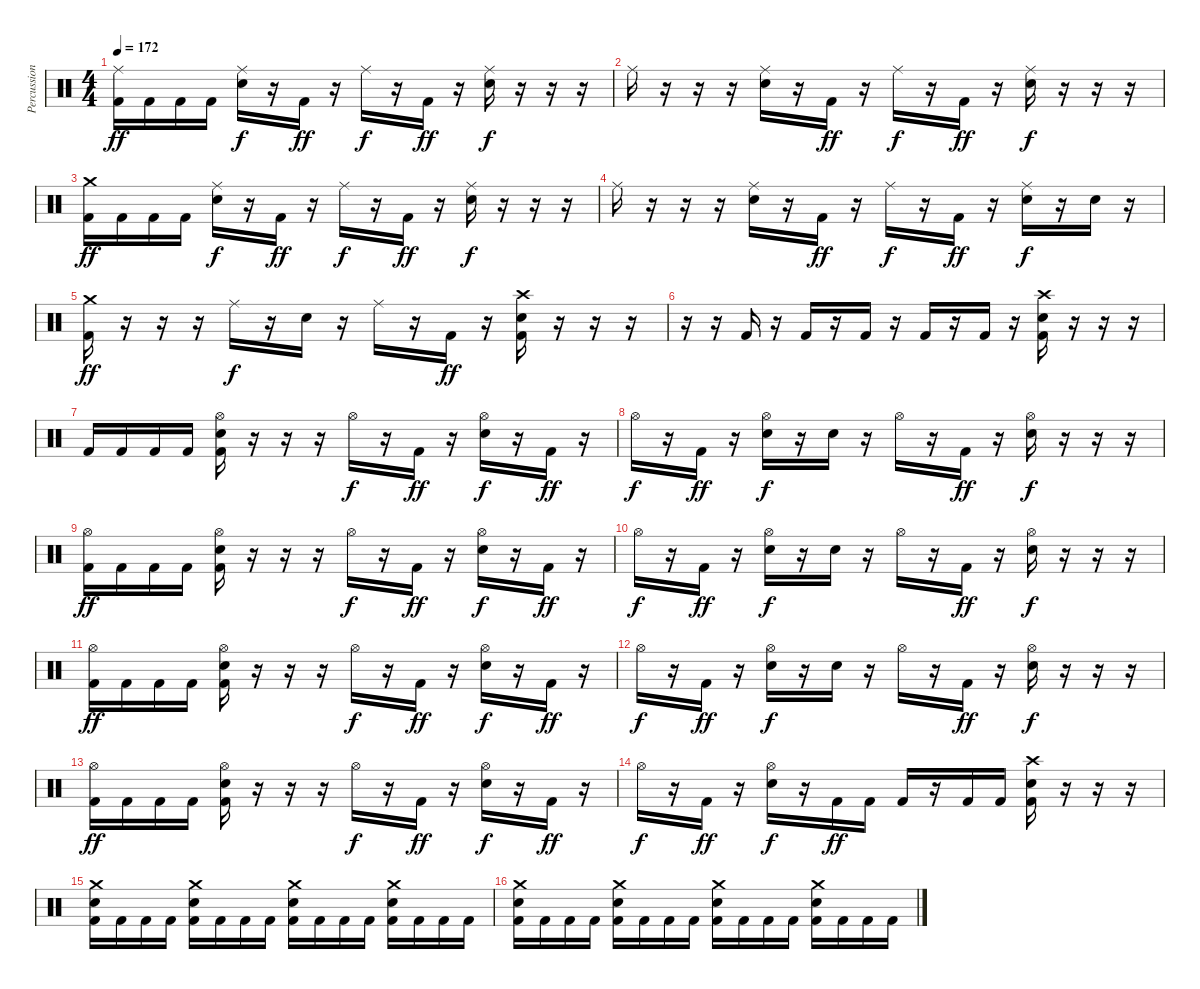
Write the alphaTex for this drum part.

\track ("Percussion" "Percussion") {instrument percussion}
\staff {score}
\articulation defaults
\ts (4 4)
\tempo 172
\clef neutral
\ks c
("Ride (middle)" "Kick (hit) 2").16{dy ff} "Kick (hit) 2".16 "Kick (hit) 2".16 "Kick (hit) 2".16 ("Ride (middle)" "Electric Snare (hit)").16{dy f} r.16 "Kick (hit) 2".16{dy ff} r.16 "Ride (middle)".16{dy f} r.16 "Kick (hit) 2".16{dy ff} r.16 ("Ride (middle)" "Electric Snare (hit)").16{dy f} r.16 r.16 r.16 |
"Ride (middle)".16 r.16 r.16 r.16 ("Ride (middle)" "Electric Snare (hit)").16 r.16 "Kick (hit) 2".16{dy ff} r.16 "Ride (middle)".16{dy f} r.16 "Kick (hit) 2".16{dy ff} r.16 ("Ride (middle)" "Electric Snare (hit)").16{dy f} r.16 r.16 r.16 |
("Crash medium (hit)" "Kick (hit) 2").16{dy ff} "Kick (hit) 2".16 "Kick (hit) 2".16 "Kick (hit) 2".16 ("Ride (middle)" "Electric Snare (hit)").16{dy f} r.16 "Kick (hit) 2".16{dy ff} r.16 "Ride (middle)".16{dy f} r.16 "Kick (hit) 2".16{dy ff} r.16 ("Ride (middle)" "Electric Snare (hit)").16{dy f} r.16 r.16 r.16 |
"Ride (middle)".16 r.16 r.16 r.16 ("Ride (middle)" "Electric Snare (hit)").16 r.16 "Kick (hit) 2".16{dy ff} r.16 "Ride (middle)".16{dy f} r.16 "Kick (hit) 2".16{dy ff} r.16 ("Ride (middle)" "Electric Snare (hit)").16{dy f} r.16 "Electric Snare (hit)".16 r.16 |
("Crash medium (hit)" "Kick (hit) 2").16{dy ff} r.16 r.16 r.16 "Ride (middle)".16{dy f} r.16 "Electric Snare (hit)".16 r.16 "Ride (middle)".16 r.16 "Kick (hit) 2".16{dy ff} r.16 ("Crash high (hit)" "Electric Snare (hit)" "Kick (hit) 2").16 r.16 r.16 r.16 |
r.16 r.16 "Kick (hit) 2".16 r.16 "Kick (hit) 2".16 r.16 "Kick (hit) 2".16 r.16 "Kick (hit) 2".16 r.16 "Kick (hit) 2".16 r.16 ("Crash high (hit)" "Electric Snare (hit)" "Kick (hit) 2").16 r.16 r.16 r.16 |
"Kick (hit) 2".16 "Kick (hit) 2".16 "Kick (hit) 2".16 "Kick (hit) 2".16 ("Hi-Hat (open)" "Electric Snare (hit)" "Kick (hit) 2").16 r.16 r.16 r.16 "Hi-Hat (open)".16{dy f} r.16 "Kick (hit) 2".16{dy ff} r.16 ("Hi-Hat (open)" "Electric Snare (hit)").16{dy f} r.16 "Kick (hit) 2".16{dy ff} r.16 |
"Hi-Hat (open)".16{dy f} r.16 "Kick (hit) 2".16{dy ff} r.16 ("Hi-Hat (open)" "Electric Snare (hit)").16{dy f} r.16 "Electric Snare (hit)".16 r.16 "Hi-Hat (open)".16 r.16 "Kick (hit) 2".16{dy ff} r.16 ("Hi-Hat (open)" "Electric Snare (hit)").16{dy f} r.16 r.16 r.16 |
("Hi-Hat (open)" "Kick (hit) 2").16{dy ff} "Kick (hit) 2".16 "Kick (hit) 2".16 "Kick (hit) 2".16 ("Hi-Hat (open)" "Electric Snare (hit)" "Kick (hit) 2").16 r.16 r.16 r.16 "Hi-Hat (open)".16{dy f} r.16 "Kick (hit) 2".16{dy ff} r.16 ("Hi-Hat (open)" "Electric Snare (hit)").16{dy f} r.16 "Kick (hit) 2".16{dy ff} r.16 |
"Hi-Hat (open)".16{dy f} r.16 "Kick (hit) 2".16{dy ff} r.16 ("Hi-Hat (open)" "Electric Snare (hit)").16{dy f} r.16 "Electric Snare (hit)".16 r.16 "Hi-Hat (open)".16 r.16 "Kick (hit) 2".16{dy ff} r.16 ("Hi-Hat (open)" "Electric Snare (hit)").16{dy f} r.16 r.16 r.16 |
("Hi-Hat (open)" "Kick (hit) 2").16{dy ff} "Kick (hit) 2".16 "Kick (hit) 2".16 "Kick (hit) 2".16 ("Hi-Hat (open)" "Electric Snare (hit)" "Kick (hit) 2").16 r.16 r.16 r.16 "Hi-Hat (open)".16{dy f} r.16 "Kick (hit) 2".16{dy ff} r.16 ("Hi-Hat (open)" "Electric Snare (hit)").16{dy f} r.16 "Kick (hit) 2".16{dy ff} r.16 |
"Hi-Hat (open)".16{dy f} r.16 "Kick (hit) 2".16{dy ff} r.16 ("Hi-Hat (open)" "Electric Snare (hit)").16{dy f} r.16 "Electric Snare (hit)".16 r.16 "Hi-Hat (open)".16 r.16 "Kick (hit) 2".16{dy ff} r.16 ("Hi-Hat (open)" "Electric Snare (hit)").16{dy f} r.16 r.16 r.16 |
("Hi-Hat (open)" "Kick (hit) 2").16{dy ff} "Kick (hit) 2".16 "Kick (hit) 2".16 "Kick (hit) 2".16 ("Hi-Hat (open)" "Electric Snare (hit)" "Kick (hit) 2").16 r.16 r.16 r.16 "Hi-Hat (open)".16{dy f} r.16 "Kick (hit) 2".16{dy ff} r.16 ("Hi-Hat (open)" "Electric Snare (hit)").16{dy f} r.16 "Kick (hit) 2".16{dy ff} r.16 |
"Hi-Hat (open)".16{dy f} r.16 "Kick (hit) 2".16{dy ff} r.16 ("Hi-Hat (open)" "Electric Snare (hit)").16{dy f} r.16 "Kick (hit) 2".16{dy ff} "Kick (hit) 2".16 "Kick (hit) 2".16 r.16 "Kick (hit) 2".16 "Kick (hit) 2".16 ("Crash high (hit)" "Electric Snare (hit)" "Kick (hit) 2").16 r.16 r.16 r.16 |
("Crash medium (hit)" "Electric Snare (hit)" "Kick (hit) 2").16 "Kick (hit) 2".16 "Kick (hit) 2".16 "Kick (hit) 2".16 ("Crash medium (hit)" "Electric Snare (hit)" "Kick (hit) 2").16 "Kick (hit) 2".16 "Kick (hit) 2".16 "Kick (hit) 2".16 ("Crash medium (hit)" "Electric Snare (hit)" "Kick (hit) 2").16 "Kick (hit) 2".16 "Kick (hit) 2".16 "Kick (hit) 2".16 ("Crash medium (hit)" "Electric Snare (hit)" "Kick (hit) 2").16 "Kick (hit) 2".16 "Kick (hit) 2".16 "Kick (hit) 2".16 |
("Crash medium (hit)" "Electric Snare (hit)" "Kick (hit) 2").16 "Kick (hit) 2".16 "Kick (hit) 2".16 "Kick (hit) 2".16 ("Crash medium (hit)" "Electric Snare (hit)" "Kick (hit) 2").16 "Kick (hit) 2".16 "Kick (hit) 2".16 "Kick (hit) 2".16 ("Crash medium (hit)" "Electric Snare (hit)" "Kick (hit) 2").16 "Kick (hit) 2".16 "Kick (hit) 2".16 "Kick (hit) 2".16 ("Crash medium (hit)" "Electric Snare (hit)" "Kick (hit) 2").16 "Kick (hit) 2".16 "Kick (hit) 2".16 "Kick (hit) 2".16
